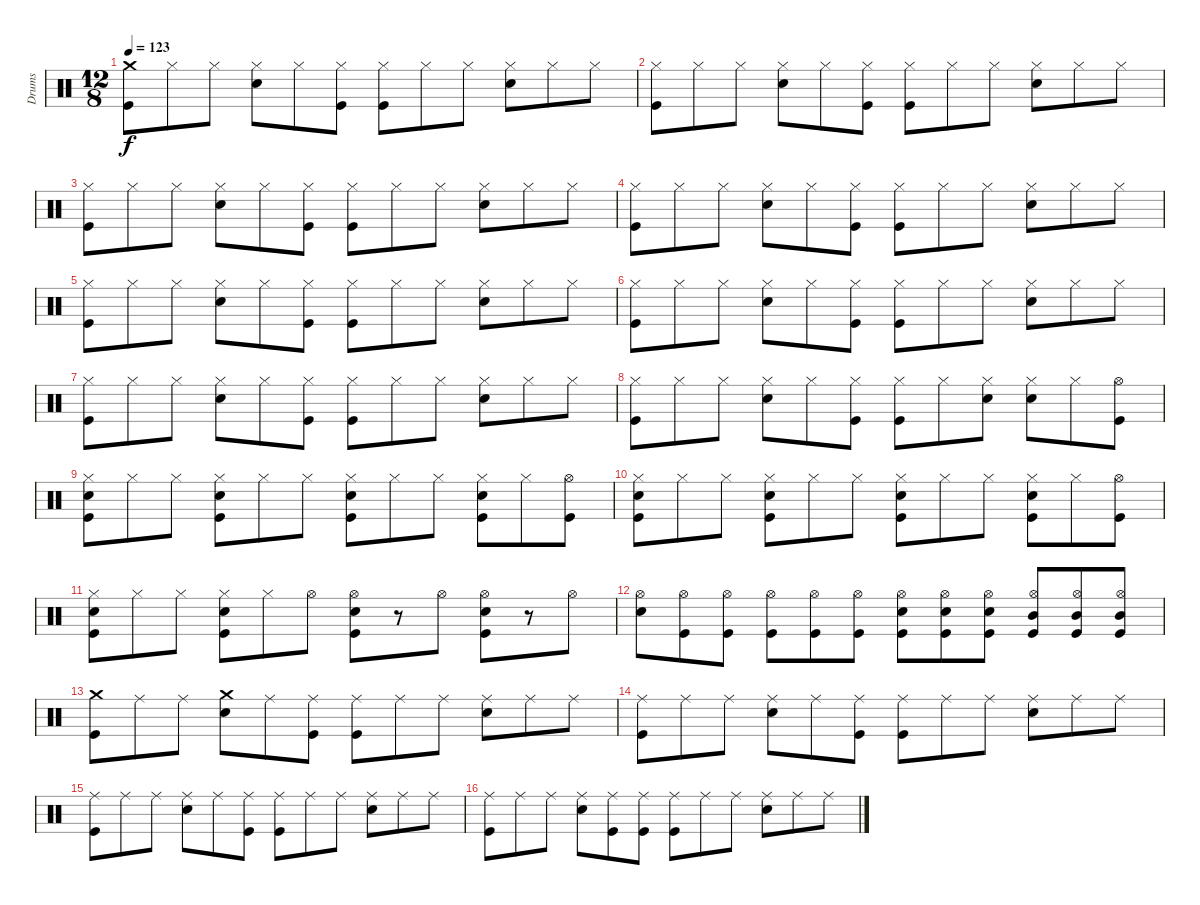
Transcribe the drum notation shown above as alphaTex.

\track ("Drums" "Drums") {instrument percussion}
\staff {score}
\articulation defaults
\ts (12 8)
\tempo 123
\clef neutral
\ks c
("Crash medium (hit)" "Kick (hit)").8{dy f} "Hi-Hat (closed)".8 "Hi-Hat (closed)".8 ("Hi-Hat (closed)" "Snare (hit) 2").8 "Hi-Hat (closed)".8 ("Hi-Hat (closed)" "Kick (hit)").8 ("Hi-Hat (closed)" "Kick (hit)").8 "Hi-Hat (closed)".8 "Hi-Hat (closed)".8 ("Hi-Hat (closed)" "Snare (hit) 2").8 "Hi-Hat (closed)".8 "Hi-Hat (closed)".8 |
("Hi-Hat (closed)" "Kick (hit)").8 "Hi-Hat (closed)".8 "Hi-Hat (closed)".8 ("Hi-Hat (closed)" "Snare (hit) 2").8 "Hi-Hat (closed)".8 ("Hi-Hat (closed)" "Kick (hit)").8 ("Hi-Hat (closed)" "Kick (hit)").8 "Hi-Hat (closed)".8 "Hi-Hat (closed)".8 ("Hi-Hat (closed)" "Snare (hit) 2").8 "Hi-Hat (closed)".8 "Hi-Hat (closed)".8 |
("Hi-Hat (closed)" "Kick (hit)").8 "Hi-Hat (closed)".8 "Hi-Hat (closed)".8 ("Hi-Hat (closed)" "Snare (hit) 2").8 "Hi-Hat (closed)".8 ("Hi-Hat (closed)" "Kick (hit)").8 ("Hi-Hat (closed)" "Kick (hit)").8 "Hi-Hat (closed)".8 "Hi-Hat (closed)".8 ("Hi-Hat (closed)" "Snare (hit) 2").8 "Hi-Hat (closed)".8 "Hi-Hat (closed)".8 |
("Hi-Hat (closed)" "Kick (hit)").8 "Hi-Hat (closed)".8 "Hi-Hat (closed)".8 ("Hi-Hat (closed)" "Snare (hit) 2").8 "Hi-Hat (closed)".8 ("Hi-Hat (closed)" "Kick (hit)").8 ("Hi-Hat (closed)" "Kick (hit)").8 "Hi-Hat (closed)".8 "Hi-Hat (closed)".8 ("Hi-Hat (closed)" "Snare (hit) 2").8 "Hi-Hat (closed)".8 "Hi-Hat (closed)".8 |
("Hi-Hat (closed)" "Kick (hit)").8 "Hi-Hat (closed)".8 "Hi-Hat (closed)".8 ("Hi-Hat (closed)" "Snare (hit) 2").8 "Hi-Hat (closed)".8 ("Hi-Hat (closed)" "Kick (hit)").8 ("Hi-Hat (closed)" "Kick (hit)").8 "Hi-Hat (closed)".8 "Hi-Hat (closed)".8 ("Hi-Hat (closed)" "Snare (hit) 2").8 "Hi-Hat (closed)".8 "Hi-Hat (closed)".8 |
("Hi-Hat (closed)" "Kick (hit)").8 "Hi-Hat (closed)".8 "Hi-Hat (closed)".8 ("Hi-Hat (closed)" "Snare (hit) 2").8 "Hi-Hat (closed)".8 ("Hi-Hat (closed)" "Kick (hit)").8 ("Hi-Hat (closed)" "Kick (hit)").8 "Hi-Hat (closed)".8 "Hi-Hat (closed)".8 ("Hi-Hat (closed)" "Snare (hit) 2").8 "Hi-Hat (closed)".8 "Hi-Hat (closed)".8 |
("Hi-Hat (closed)" "Kick (hit)").8 "Hi-Hat (closed)".8 "Hi-Hat (closed)".8 ("Hi-Hat (closed)" "Snare (hit) 2").8 "Hi-Hat (closed)".8 ("Hi-Hat (closed)" "Kick (hit)").8 ("Hi-Hat (closed)" "Kick (hit)").8 "Hi-Hat (closed)".8 "Hi-Hat (closed)".8 ("Hi-Hat (closed)" "Snare (hit) 2").8 "Hi-Hat (closed)".8 "Hi-Hat (closed)".8 |
("Hi-Hat (closed)" "Kick (hit)").8 "Hi-Hat (closed)".8 "Hi-Hat (closed)".8 ("Hi-Hat (closed)" "Snare (hit) 2").8 "Hi-Hat (closed)".8 ("Hi-Hat (closed)" "Kick (hit)").8 ("Hi-Hat (closed)" "Kick (hit)").8 "Hi-Hat (closed)".8 ("Hi-Hat (closed)" "Snare (hit) 2").8 ("Hi-Hat (closed)" "Snare (hit) 2").8 "Hi-Hat (closed)".8 ("Hi-Hat (open)" "Kick (hit)").8 |
("Hi-Hat (closed)" "Snare (hit) 2" "Kick (hit)").8 "Hi-Hat (closed)".8 "Hi-Hat (closed)".8 ("Hi-Hat (closed)" "Snare (hit) 2" "Kick (hit)").8 "Hi-Hat (closed)".8 "Hi-Hat (closed)".8 ("Hi-Hat (closed)" "Snare (hit) 2" "Kick (hit)").8 "Hi-Hat (closed)".8 "Hi-Hat (closed)".8 ("Hi-Hat (closed)" "Snare (hit) 2" "Kick (hit)").8 "Hi-Hat (closed)".8 ("Hi-Hat (open)" "Kick (hit)").8 |
("Hi-Hat (closed)" "Snare (hit) 2" "Kick (hit)").8 "Hi-Hat (closed)".8 "Hi-Hat (closed)".8 ("Hi-Hat (closed)" "Snare (hit) 2" "Kick (hit)").8 "Hi-Hat (closed)".8 "Hi-Hat (closed)".8 ("Hi-Hat (closed)" "Snare (hit) 2" "Kick (hit)").8 "Hi-Hat (closed)".8 "Hi-Hat (closed)".8 ("Hi-Hat (closed)" "Snare (hit) 2" "Kick (hit)").8 "Hi-Hat (closed)".8 ("Hi-Hat (open)" "Kick (hit)").8 |
("Hi-Hat (closed)" "Snare (hit) 2" "Kick (hit)").8 "Hi-Hat (closed)".8 "Hi-Hat (closed)".8 ("Hi-Hat (closed)" "Snare (hit) 2" "Kick (hit)").8 "Hi-Hat (closed)".8 "Hi-Hat (open)".8 ("Hi-Hat (open)" "Snare (hit) 2" "Kick (hit)").8 r.8 "Hi-Hat (open)".8 ("Hi-Hat (open)" "Snare (hit) 2" "Kick (hit)").8 r.8 "Hi-Hat (open)".8 |
("Hi-Hat (open)" "Snare (hit) 2").8 ("Hi-Hat (open)" "Kick (hit)").8 ("Hi-Hat (open)" "Kick (hit)").8 ("Hi-Hat (open)" "Kick (hit)").8 ("Hi-Hat (open)" "Kick (hit)").8 ("Hi-Hat (open)" "Kick (hit)").8 ("Hi-Hat (open)" "Snare (hit) 2" "Kick (hit)").8 ("Hi-Hat (open)" "Snare (hit) 2" "Kick (hit)").8 ("Hi-Hat (open)" "Snare (hit) 2" "Kick (hit)").8 ("Hi-Hat (open)" "Mid Tom (hit)" "Kick (hit)").8 ("Hi-Hat (open)" "Mid Tom (hit)" "Kick (hit)").8 ("Hi-Hat (open)" "Mid Tom (hit)" "Kick (hit)").8 |
("Crash medium (hit)" "Kick (hit)").8 "Ride (middle)".8 "Ride (middle)".8 ("Crash medium (hit)" "Snare (hit) 2").8 "Ride (middle)".8 ("Ride (middle)" "Kick (hit)").8 ("Ride (middle)" "Kick (hit)").8 "Ride (middle)".8 "Ride (middle)".8 ("Ride (middle)" "Snare (hit) 2").8 "Ride (middle)".8 "Ride (middle)".8 |
("Ride (middle)" "Kick (hit)").8 "Ride (middle)".8 "Ride (middle)".8 ("Ride (middle)" "Snare (hit) 2").8 "Ride (middle)".8 ("Ride (middle)" "Kick (hit)").8 ("Ride (middle)" "Kick (hit)").8 "Ride (middle)".8 "Ride (middle)".8 ("Ride (middle)" "Snare (hit) 2").8 "Ride (middle)".8 "Ride (middle)".8 |
("Ride (middle)" "Kick (hit)").8 "Ride (middle)".8 "Ride (middle)".8 ("Ride (middle)" "Snare (hit) 2").8 "Ride (middle)".8 ("Ride (middle)" "Kick (hit)").8 ("Ride (middle)" "Kick (hit)").8 "Ride (middle)".8 "Ride (middle)".8 ("Ride (middle)" "Snare (hit) 2").8 "Ride (middle)".8 "Ride (middle)".8 |
("Ride (middle)" "Kick (hit)").8 "Ride (middle)".8 "Ride (middle)".8 ("Ride (middle)" "Snare (hit) 2").8 ("Ride (middle)" "Kick (hit)").8 ("Ride (middle)" "Kick (hit)").8 ("Ride (middle)" "Kick (hit)").8 "Ride (middle)".8 "Ride (middle)".8 ("Ride (middle)" "Snare (hit) 2").8 "Ride (middle)".8 "Ride (middle)".8
